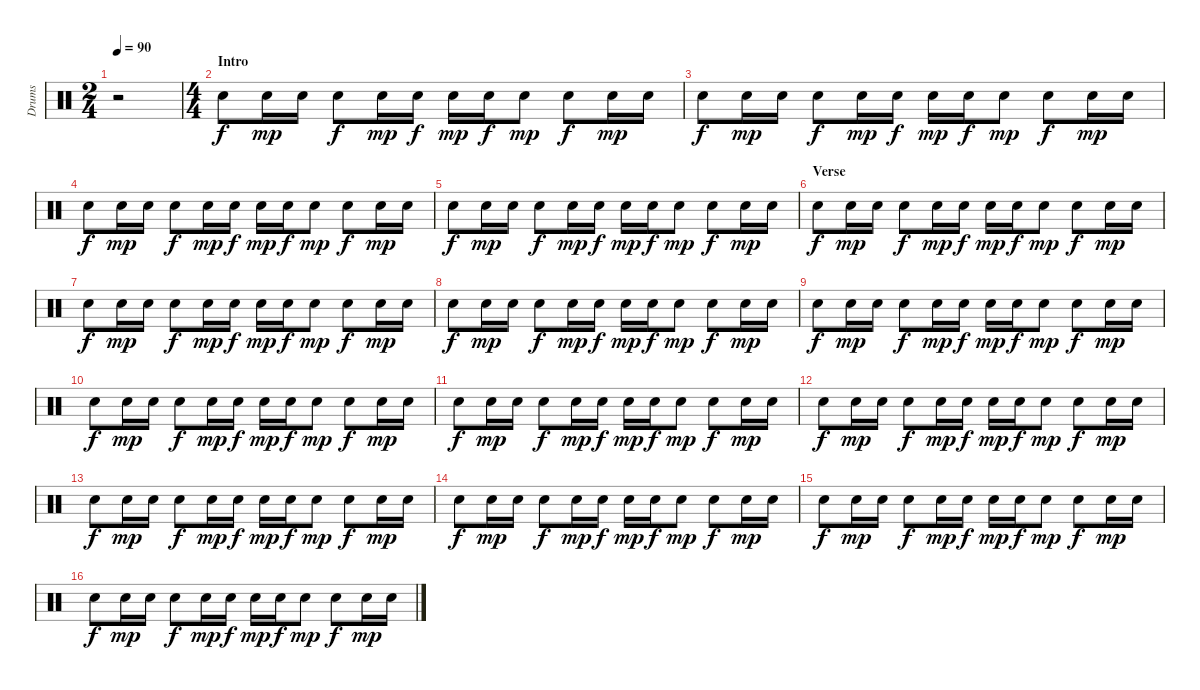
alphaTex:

\track ("Drums" "Drums") {instrument percussion}
\staff {score}
\articulation defaults
\ts (2 4)
\tempo 90
\clef neutral
\ks c
r.2{dy f} |
\ts (4 4)
\section ("" "Intro")
"Electric Snare (hit)".8 "Electric Snare (hit)".16{dy mp} "Electric Snare (hit)".16 "Electric Snare (hit)".8{dy f} "Electric Snare (hit)".16{dy mp} "Electric Snare (hit)".16{dy f} "Electric Snare (hit)".16{dy mp} "Electric Snare (hit)".16{dy f} "Electric Snare (hit)".8{dy mp} "Electric Snare (hit)".8{dy f} "Electric Snare (hit)".16{dy mp} "Electric Snare (hit)".16 |
"Electric Snare (hit)".8{dy f} "Electric Snare (hit)".16{dy mp} "Electric Snare (hit)".16 "Electric Snare (hit)".8{dy f} "Electric Snare (hit)".16{dy mp} "Electric Snare (hit)".16{dy f} "Electric Snare (hit)".16{dy mp} "Electric Snare (hit)".16{dy f} "Electric Snare (hit)".8{dy mp} "Electric Snare (hit)".8{dy f} "Electric Snare (hit)".16{dy mp} "Electric Snare (hit)".16 |
"Electric Snare (hit)".8{dy f} "Electric Snare (hit)".16{dy mp} "Electric Snare (hit)".16 "Electric Snare (hit)".8{dy f} "Electric Snare (hit)".16{dy mp} "Electric Snare (hit)".16{dy f} "Electric Snare (hit)".16{dy mp} "Electric Snare (hit)".16{dy f} "Electric Snare (hit)".8{dy mp} "Electric Snare (hit)".8{dy f} "Electric Snare (hit)".16{dy mp} "Electric Snare (hit)".16 |
"Electric Snare (hit)".8{dy f} "Electric Snare (hit)".16{dy mp} "Electric Snare (hit)".16 "Electric Snare (hit)".8{dy f} "Electric Snare (hit)".16{dy mp} "Electric Snare (hit)".16{dy f} "Electric Snare (hit)".16{dy mp} "Electric Snare (hit)".16{dy f} "Electric Snare (hit)".8{dy mp} "Electric Snare (hit)".8{dy f} "Electric Snare (hit)".16{dy mp} "Electric Snare (hit)".16 |
\section ("" "Verse")
"Electric Snare (hit)".8{dy f} "Electric Snare (hit)".16{dy mp} "Electric Snare (hit)".16 "Electric Snare (hit)".8{dy f} "Electric Snare (hit)".16{dy mp} "Electric Snare (hit)".16{dy f} "Electric Snare (hit)".16{dy mp} "Electric Snare (hit)".16{dy f} "Electric Snare (hit)".8{dy mp} "Electric Snare (hit)".8{dy f} "Electric Snare (hit)".16{dy mp} "Electric Snare (hit)".16 |
"Electric Snare (hit)".8{dy f} "Electric Snare (hit)".16{dy mp} "Electric Snare (hit)".16 "Electric Snare (hit)".8{dy f} "Electric Snare (hit)".16{dy mp} "Electric Snare (hit)".16{dy f} "Electric Snare (hit)".16{dy mp} "Electric Snare (hit)".16{dy f} "Electric Snare (hit)".8{dy mp} "Electric Snare (hit)".8{dy f} "Electric Snare (hit)".16{dy mp} "Electric Snare (hit)".16 |
"Electric Snare (hit)".8{dy f} "Electric Snare (hit)".16{dy mp} "Electric Snare (hit)".16 "Electric Snare (hit)".8{dy f} "Electric Snare (hit)".16{dy mp} "Electric Snare (hit)".16{dy f} "Electric Snare (hit)".16{dy mp} "Electric Snare (hit)".16{dy f} "Electric Snare (hit)".8{dy mp} "Electric Snare (hit)".8{dy f} "Electric Snare (hit)".16{dy mp} "Electric Snare (hit)".16 |
"Electric Snare (hit)".8{dy f} "Electric Snare (hit)".16{dy mp} "Electric Snare (hit)".16 "Electric Snare (hit)".8{dy f} "Electric Snare (hit)".16{dy mp} "Electric Snare (hit)".16{dy f} "Electric Snare (hit)".16{dy mp} "Electric Snare (hit)".16{dy f} "Electric Snare (hit)".8{dy mp} "Electric Snare (hit)".8{dy f} "Electric Snare (hit)".16{dy mp} "Electric Snare (hit)".16 |
"Electric Snare (hit)".8{dy f} "Electric Snare (hit)".16{dy mp} "Electric Snare (hit)".16 "Electric Snare (hit)".8{dy f} "Electric Snare (hit)".16{dy mp} "Electric Snare (hit)".16{dy f} "Electric Snare (hit)".16{dy mp} "Electric Snare (hit)".16{dy f} "Electric Snare (hit)".8{dy mp} "Electric Snare (hit)".8{dy f} "Electric Snare (hit)".16{dy mp} "Electric Snare (hit)".16 |
"Electric Snare (hit)".8{dy f} "Electric Snare (hit)".16{dy mp} "Electric Snare (hit)".16 "Electric Snare (hit)".8{dy f} "Electric Snare (hit)".16{dy mp} "Electric Snare (hit)".16{dy f} "Electric Snare (hit)".16{dy mp} "Electric Snare (hit)".16{dy f} "Electric Snare (hit)".8{dy mp} "Electric Snare (hit)".8{dy f} "Electric Snare (hit)".16{dy mp} "Electric Snare (hit)".16 |
"Electric Snare (hit)".8{dy f} "Electric Snare (hit)".16{dy mp} "Electric Snare (hit)".16 "Electric Snare (hit)".8{dy f} "Electric Snare (hit)".16{dy mp} "Electric Snare (hit)".16{dy f} "Electric Snare (hit)".16{dy mp} "Electric Snare (hit)".16{dy f} "Electric Snare (hit)".8{dy mp} "Electric Snare (hit)".8{dy f} "Electric Snare (hit)".16{dy mp} "Electric Snare (hit)".16 |
"Electric Snare (hit)".8{dy f} "Electric Snare (hit)".16{dy mp} "Electric Snare (hit)".16 "Electric Snare (hit)".8{dy f} "Electric Snare (hit)".16{dy mp} "Electric Snare (hit)".16{dy f} "Electric Snare (hit)".16{dy mp} "Electric Snare (hit)".16{dy f} "Electric Snare (hit)".8{dy mp} "Electric Snare (hit)".8{dy f} "Electric Snare (hit)".16{dy mp} "Electric Snare (hit)".16 |
"Electric Snare (hit)".8{dy f} "Electric Snare (hit)".16{dy mp} "Electric Snare (hit)".16 "Electric Snare (hit)".8{dy f} "Electric Snare (hit)".16{dy mp} "Electric Snare (hit)".16{dy f} "Electric Snare (hit)".16{dy mp} "Electric Snare (hit)".16{dy f} "Electric Snare (hit)".8{dy mp} "Electric Snare (hit)".8{dy f} "Electric Snare (hit)".16{dy mp} "Electric Snare (hit)".16 |
"Electric Snare (hit)".8{dy f} "Electric Snare (hit)".16{dy mp} "Electric Snare (hit)".16 "Electric Snare (hit)".8{dy f} "Electric Snare (hit)".16{dy mp} "Electric Snare (hit)".16{dy f} "Electric Snare (hit)".16{dy mp} "Electric Snare (hit)".16{dy f} "Electric Snare (hit)".8{dy mp} "Electric Snare (hit)".8{dy f} "Electric Snare (hit)".16{dy mp} "Electric Snare (hit)".16 |
"Electric Snare (hit)".8{dy f} "Electric Snare (hit)".16{dy mp} "Electric Snare (hit)".16 "Electric Snare (hit)".8{dy f} "Electric Snare (hit)".16{dy mp} "Electric Snare (hit)".16{dy f} "Electric Snare (hit)".16{dy mp} "Electric Snare (hit)".16{dy f} "Electric Snare (hit)".8{dy mp} "Electric Snare (hit)".8{dy f} "Electric Snare (hit)".16{dy mp} "Electric Snare (hit)".16
